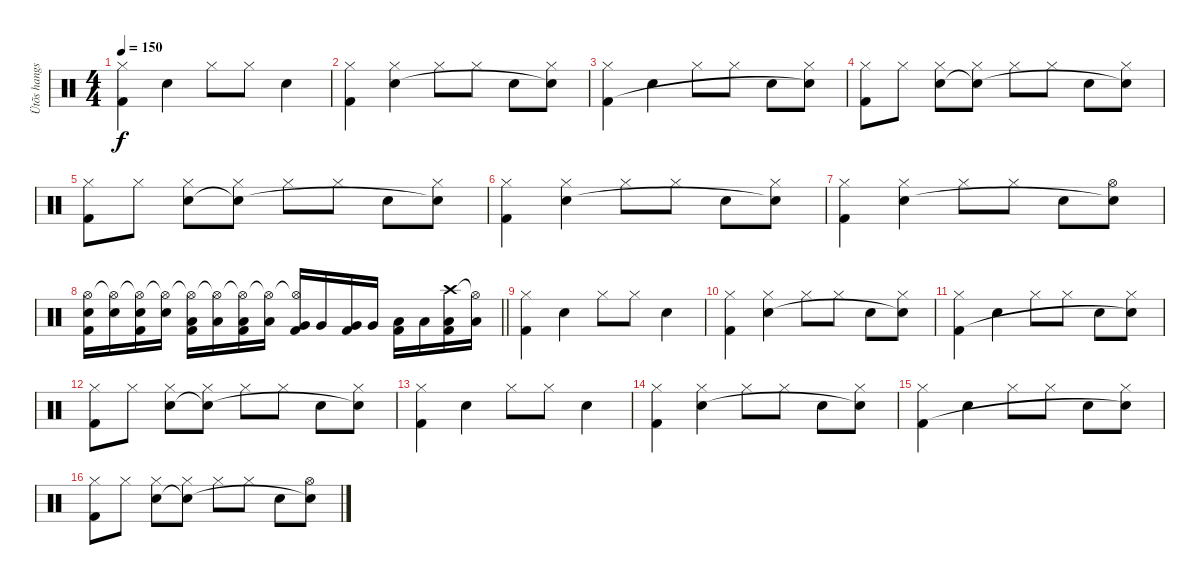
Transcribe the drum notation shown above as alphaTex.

\track ("Ütõs hangszer" "Ütõs hangs") {instrument percussion}
\staff {score}
\articulation defaults
\ts (4 4)
\tempo 150
\clef neutral
\ks c
("Hi-Hat (closed)" "Kick (hit) 2").4{dy f} "Snare (hit) 2".4 "Hi-Hat (closed)".8 "Hi-Hat (closed)".8 "Snare (hit) 2".4 |
("Hi-Hat (closed)" "Kick (hit) 2").4 ("Hi-Hat (closed)" "Snare (hit) 2").4 "Hi-Hat (closed)".8 "Hi-Hat (closed)".8 "Snare (hit) 2".8 ("Hi-Hat (closed)" "Snare (hit) 2"{t}).8 |
("Hi-Hat (closed)" "Kick (hit) 2").4 "Snare (hit) 2".4 "Hi-Hat (closed)".8 "Hi-Hat (closed)".8 "Snare (hit) 2".8 ("Hi-Hat (closed)" "Snare (hit) 2"{t}).8 |
("Hi-Hat (closed)" "Kick (hit) 2").8 "Hi-Hat (closed)".8 ("Hi-Hat (closed)" "Snare (hit) 2").8 ("Hi-Hat (closed)" "Snare (hit) 2"{t}).8 "Hi-Hat (closed)".8 "Hi-Hat (closed)".8 "Snare (hit) 2".8 ("Hi-Hat (closed)" "Snare (hit) 2"{t}).8 |
("Hi-Hat (closed)" "Kick (hit) 2").8 "Hi-Hat (closed)".8 ("Hi-Hat (closed)" "Snare (hit) 2").8 ("Hi-Hat (closed)" "Snare (hit) 2"{t}).8 "Hi-Hat (closed)".8 "Hi-Hat (closed)".8 "Snare (hit) 2".8 ("Hi-Hat (closed)" "Snare (hit) 2"{t}).8 |
("Hi-Hat (closed)" "Kick (hit) 2").4 ("Hi-Hat (closed)" "Snare (hit) 2").4 "Hi-Hat (closed)".8 "Hi-Hat (closed)".8 "Snare (hit) 2".8 ("Hi-Hat (closed)" "Snare (hit) 2"{t}).8 |
("Hi-Hat (closed)" "Kick (hit) 2").4 ("Hi-Hat (closed)" "Snare (hit) 2").4 "Hi-Hat (closed)".8 "Hi-Hat (closed)".8 "Snare (hit) 2".8 ("Hi-Hat (open)" "Snare (hit) 2"{t}).8 |
\barLineRight lightlight
("Hi-Hat (open)" "Snare (hit) 2" "Kick (hit) 2").16 ("Hi-Hat (open)"{t} "Snare (hit) 2").16 ("Hi-Hat (open)"{t} "Snare (hit) 2" "Kick (hit) 2").16 ("Hi-Hat (open)"{t} "Snare (hit) 2").16 ("Hi-Hat (open)"{t} "Low Tom (hit)" "Kick (hit) 2").16 ("Hi-Hat (open)"{t} "Low Tom (hit)").16 ("Hi-Hat (open)"{t} "Low Tom (hit)" "Kick (hit) 2").16 ("Hi-Hat (open)"{t} "Low Tom (hit)").16 ("Hi-Hat (open)"{t} "Very Low Tom (hit)" "Kick (hit) 2").16 "Very Low Tom (hit)".16 ("Very Low Tom (hit)" "Kick (hit) 2").16 "Very Low Tom (hit)".16 ("Low Floor Tom (hit)" "Kick (hit) 2").16 "Low Floor Tom (hit)".16 ("Crash high (hit)" "Low Floor Tom (hit)" "Kick (hit) 2").16 ("Hi-Hat (open)"{t} "Low Floor Tom (hit)").16 |
("Hi-Hat (closed)" "Kick (hit) 2").4 "Snare (hit) 2".4 "Hi-Hat (closed)".8 "Hi-Hat (closed)".8 "Snare (hit) 2".4 |
("Hi-Hat (closed)" "Kick (hit) 2").4 ("Hi-Hat (closed)" "Snare (hit) 2").4 "Hi-Hat (closed)".8 "Hi-Hat (closed)".8 "Snare (hit) 2".8 ("Hi-Hat (closed)" "Snare (hit) 2"{t}).8 |
("Hi-Hat (closed)" "Kick (hit) 2").4 "Snare (hit) 2".4 "Hi-Hat (closed)".8 "Hi-Hat (closed)".8 "Snare (hit) 2".8 ("Hi-Hat (closed)" "Snare (hit) 2"{t}).8 |
("Hi-Hat (closed)" "Kick (hit) 2").8 "Hi-Hat (closed)".8 ("Hi-Hat (closed)" "Snare (hit) 2").8 ("Hi-Hat (closed)" "Snare (hit) 2"{t}).8 "Hi-Hat (closed)".8 "Hi-Hat (closed)".8 "Snare (hit) 2".8 ("Hi-Hat (closed)" "Snare (hit) 2"{t}).8 |
("Hi-Hat (closed)" "Kick (hit) 2").4 "Snare (hit) 2".4 "Hi-Hat (closed)".8 "Hi-Hat (closed)".8 "Snare (hit) 2".4 |
("Hi-Hat (closed)" "Kick (hit) 2").4 ("Hi-Hat (closed)" "Snare (hit) 2").4 "Hi-Hat (closed)".8 "Hi-Hat (closed)".8 "Snare (hit) 2".8 ("Hi-Hat (closed)" "Snare (hit) 2"{t}).8 |
("Hi-Hat (closed)" "Kick (hit) 2").4 "Snare (hit) 2".4 "Hi-Hat (closed)".8 "Hi-Hat (closed)".8 "Snare (hit) 2".8 ("Hi-Hat (closed)" "Snare (hit) 2"{t}).8 |
("Hi-Hat (closed)" "Kick (hit) 2").8 "Hi-Hat (closed)".8 ("Hi-Hat (closed)" "Snare (hit) 2").8 ("Hi-Hat (closed)" "Snare (hit) 2"{t}).8 "Hi-Hat (closed)".8 "Hi-Hat (closed)".8 "Snare (hit) 2".8 ("Hi-Hat (open)" "Snare (hit) 2"{t}).8
